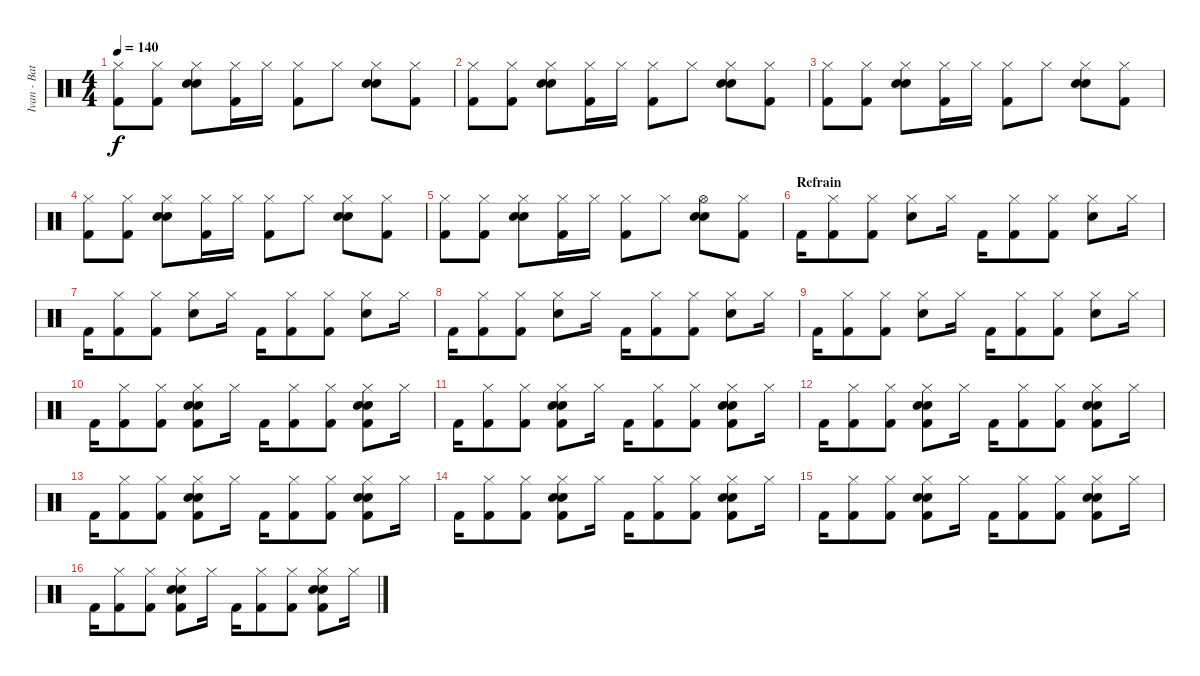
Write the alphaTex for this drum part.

\track ("Ivan - Batterie" "Ivan - Bat") {instrument percussion}
\staff {score}
\articulation defaults
\ts (4 4)
\tempo 140
\clef neutral
\ks c
("Hi-Hat (closed)" "Kick (hit) 2").8{dy f} ("Hi-Hat (closed)" "Kick (hit) 2").8 ("Hi-Hat (closed)" "Electric Snare (hit)" "Snare (hit) 2").8 ("Hi-Hat (closed)" "Kick (hit) 2").16 "Hi-Hat (closed)".16 ("Hi-Hat (closed)" "Kick (hit) 2").8 "Hi-Hat (closed)".8 ("Hi-Hat (closed)" "Electric Snare (hit)" "Snare (hit) 2").8 ("Hi-Hat (closed)" "Kick (hit) 2").8 |
("Hi-Hat (closed)" "Kick (hit) 2").8 ("Hi-Hat (closed)" "Kick (hit) 2").8 ("Hi-Hat (closed)" "Electric Snare (hit)" "Snare (hit) 2").8 ("Hi-Hat (closed)" "Kick (hit) 2").16 "Hi-Hat (closed)".16 ("Hi-Hat (closed)" "Kick (hit) 2").8 "Hi-Hat (closed)".8 ("Hi-Hat (closed)" "Electric Snare (hit)" "Snare (hit) 2").8 ("Hi-Hat (closed)" "Kick (hit) 2").8 |
("Hi-Hat (closed)" "Kick (hit) 2").8 ("Hi-Hat (closed)" "Kick (hit) 2").8 ("Hi-Hat (closed)" "Electric Snare (hit)" "Snare (hit) 2").8 ("Hi-Hat (closed)" "Kick (hit) 2").16 "Hi-Hat (closed)".16 ("Hi-Hat (closed)" "Kick (hit) 2").8 "Hi-Hat (closed)".8 ("Hi-Hat (closed)" "Electric Snare (hit)" "Snare (hit) 2").8 ("Hi-Hat (closed)" "Kick (hit) 2").8 |
("Hi-Hat (closed)" "Kick (hit) 2").8 ("Hi-Hat (closed)" "Kick (hit) 2").8 ("Hi-Hat (closed)" "Electric Snare (hit)" "Snare (hit) 2").8 ("Hi-Hat (closed)" "Kick (hit) 2").16 "Hi-Hat (closed)".16 ("Hi-Hat (closed)" "Kick (hit) 2").8 "Hi-Hat (closed)".8 ("Hi-Hat (closed)" "Electric Snare (hit)" "Snare (hit) 2").8 ("Hi-Hat (closed)" "Kick (hit) 2").8 |
("Hi-Hat (closed)" "Kick (hit) 2").8 ("Hi-Hat (closed)" "Kick (hit) 2").8 ("Hi-Hat (closed)" "Electric Snare (hit)" "Snare (hit) 2").8 ("Hi-Hat (closed)" "Kick (hit) 2").16 "Hi-Hat (closed)".16 ("Hi-Hat (closed)" "Kick (hit) 2").8 "Hi-Hat (closed)".8 ("Hi-Hat (open)" "Electric Snare (hit)" "Snare (hit) 2").8 ("Hi-Hat (closed)" "Kick (hit) 2").8 |
\section ("" "Refrain")
"Kick (hit) 2".16{volume 8} ("Hi-Hat (closed)" "Kick (hit) 2").8 ("Hi-Hat (closed)" "Kick (hit) 2").8 ("Hi-Hat (closed)" "Snare (hit) 2").8 "Hi-Hat (closed)".16 "Kick (hit) 2".16 ("Hi-Hat (closed)" "Kick (hit) 2").8 ("Hi-Hat (closed)" "Kick (hit) 2").8 ("Hi-Hat (closed)" "Snare (hit) 2").8 "Hi-Hat (closed)".16 |
"Kick (hit) 2".16 ("Hi-Hat (closed)" "Kick (hit) 2").8 ("Hi-Hat (closed)" "Kick (hit) 2").8 ("Hi-Hat (closed)" "Snare (hit) 2").8 "Hi-Hat (closed)".16 "Kick (hit) 2".16 ("Hi-Hat (closed)" "Kick (hit) 2").8 ("Hi-Hat (closed)" "Kick (hit) 2").8 ("Hi-Hat (closed)" "Snare (hit) 2").8 "Hi-Hat (closed)".16 |
"Kick (hit) 2".16 ("Hi-Hat (closed)" "Kick (hit) 2").8 ("Hi-Hat (closed)" "Kick (hit) 2").8 ("Hi-Hat (closed)" "Snare (hit) 2").8 "Hi-Hat (closed)".16 "Kick (hit) 2".16 ("Hi-Hat (closed)" "Kick (hit) 2").8 ("Hi-Hat (closed)" "Kick (hit) 2").8 ("Hi-Hat (closed)" "Snare (hit) 2").8 "Hi-Hat (closed)".16 |
"Kick (hit) 2".16 ("Hi-Hat (closed)" "Kick (hit) 2").8 ("Hi-Hat (closed)" "Kick (hit) 2").8 ("Hi-Hat (closed)" "Snare (hit) 2").8 "Hi-Hat (closed)".16 "Kick (hit) 2".16 ("Hi-Hat (closed)" "Kick (hit) 2").8 ("Hi-Hat (closed)" "Kick (hit) 2").8 ("Hi-Hat (closed)" "Snare (hit) 2").8 "Hi-Hat (closed)".16 |
"Kick (hit) 2".16{volume 13} ("Hi-Hat (closed)" "Kick (hit) 2").8 ("Hi-Hat (closed)" "Kick (hit) 2").8 ("Hi-Hat (closed)" "Electric Snare (hit)" "Snare (hit) 2" "Kick (hit) 2").8 "Hi-Hat (closed)".16 "Kick (hit) 2".16 ("Hi-Hat (closed)" "Kick (hit) 2").8 ("Hi-Hat (closed)" "Kick (hit) 2").8 ("Hi-Hat (closed)" "Electric Snare (hit)" "Snare (hit) 2" "Kick (hit) 2").8 "Hi-Hat (closed)".16 |
"Kick (hit) 2".16 ("Hi-Hat (closed)" "Kick (hit) 2").8 ("Hi-Hat (closed)" "Kick (hit) 2").8 ("Hi-Hat (closed)" "Electric Snare (hit)" "Snare (hit) 2" "Kick (hit) 2").8 "Hi-Hat (closed)".16 "Kick (hit) 2".16 ("Hi-Hat (closed)" "Kick (hit) 2").8 ("Hi-Hat (closed)" "Kick (hit) 2").8 ("Hi-Hat (closed)" "Electric Snare (hit)" "Snare (hit) 2" "Kick (hit) 2").8 "Hi-Hat (closed)".16 |
"Kick (hit) 2".16 ("Hi-Hat (closed)" "Kick (hit) 2").8 ("Hi-Hat (closed)" "Kick (hit) 2").8 ("Hi-Hat (closed)" "Electric Snare (hit)" "Snare (hit) 2" "Kick (hit) 2").8 "Hi-Hat (closed)".16 "Kick (hit) 2".16 ("Hi-Hat (closed)" "Kick (hit) 2").8 ("Hi-Hat (closed)" "Kick (hit) 2").8 ("Hi-Hat (closed)" "Electric Snare (hit)" "Snare (hit) 2" "Kick (hit) 2").8 "Hi-Hat (closed)".16 |
"Kick (hit) 2".16 ("Hi-Hat (closed)" "Kick (hit) 2").8 ("Hi-Hat (closed)" "Kick (hit) 2").8 ("Hi-Hat (closed)" "Electric Snare (hit)" "Snare (hit) 2" "Kick (hit) 2").8 "Hi-Hat (closed)".16 "Kick (hit) 2".16 ("Hi-Hat (closed)" "Kick (hit) 2").8 ("Hi-Hat (closed)" "Kick (hit) 2").8 ("Hi-Hat (closed)" "Electric Snare (hit)" "Snare (hit) 2" "Kick (hit) 2").8 "Hi-Hat (closed)".16 |
"Kick (hit) 2".16 ("Hi-Hat (closed)" "Kick (hit) 2").8 ("Hi-Hat (closed)" "Kick (hit) 2").8 ("Hi-Hat (closed)" "Electric Snare (hit)" "Snare (hit) 2" "Kick (hit) 2").8 "Hi-Hat (closed)".16 "Kick (hit) 2".16 ("Hi-Hat (closed)" "Kick (hit) 2").8 ("Hi-Hat (closed)" "Kick (hit) 2").8 ("Hi-Hat (closed)" "Electric Snare (hit)" "Snare (hit) 2" "Kick (hit) 2").8 "Hi-Hat (closed)".16 |
"Kick (hit) 2".16 ("Hi-Hat (closed)" "Kick (hit) 2").8 ("Hi-Hat (closed)" "Kick (hit) 2").8 ("Hi-Hat (closed)" "Electric Snare (hit)" "Snare (hit) 2" "Kick (hit) 2").8 "Hi-Hat (closed)".16 "Kick (hit) 2".16 ("Hi-Hat (closed)" "Kick (hit) 2").8 ("Hi-Hat (closed)" "Kick (hit) 2").8 ("Hi-Hat (closed)" "Electric Snare (hit)" "Snare (hit) 2" "Kick (hit) 2").8 "Hi-Hat (closed)".16 |
"Kick (hit) 2".16 ("Hi-Hat (closed)" "Kick (hit) 2").8 ("Hi-Hat (closed)" "Kick (hit) 2").8 ("Hi-Hat (closed)" "Electric Snare (hit)" "Snare (hit) 2" "Kick (hit) 2").8 "Hi-Hat (closed)".16 "Kick (hit) 2".16 ("Hi-Hat (closed)" "Kick (hit) 2").8 ("Hi-Hat (closed)" "Kick (hit) 2").8 ("Hi-Hat (closed)" "Electric Snare (hit)" "Snare (hit) 2" "Kick (hit) 2").8 "Hi-Hat (closed)".16
